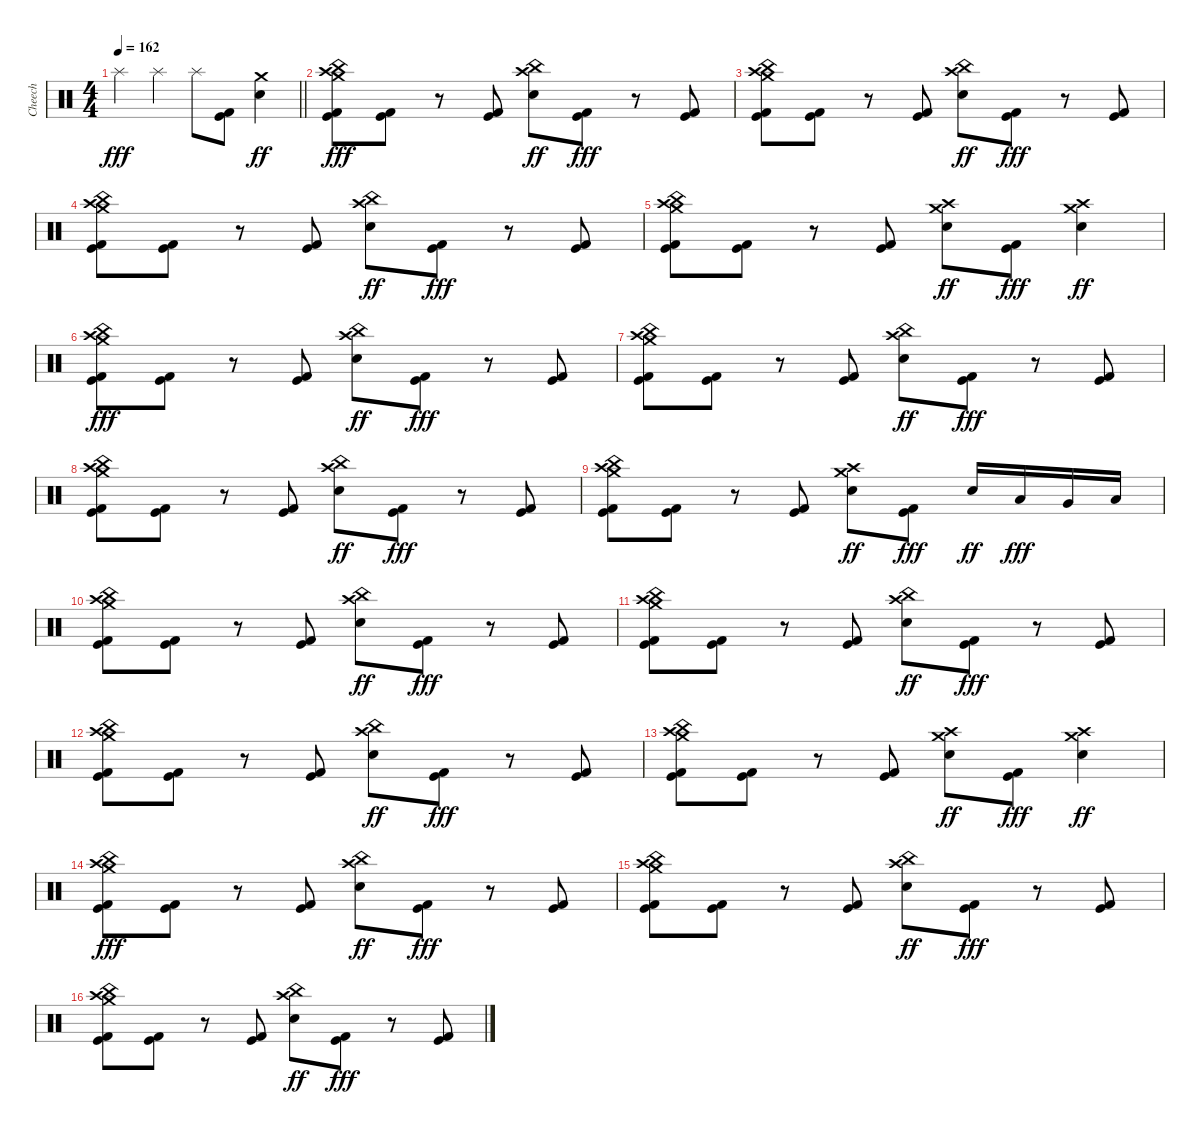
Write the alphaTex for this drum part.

\track ("Cheech" "Cheech") {instrument percussion}
\staff {score}
\articulation defaults
\ts (4 4)
\tempo 162
\clef neutral
\barLineRight lightlight
\ks c "Splash (hit)".4{dy fff} "Splash (hit)".4 "Splash (hit)".8
("Kick (hit) 2" "Kick (hit)").8 ("Crash medium (hit)" "Electric Snare (hit)").4{dy ff} |
("China (hit)" "Crash high (hit)" "Crash medium (hit)" "Kick (hit) 2" "Kick (hit)").8{dy fff} ("Kick (hit) 2" "Kick (hit)").8 r.8 ("Kick (hit) 2" "Kick (hit)").8 ("China (hit)" "Crash high (hit)" "Electric Snare (hit)").8{dy ff} ("Kick (hit) 2" "Kick (hit)").8{dy fff} r.8 ("Kick (hit) 2" "Kick (hit)").8 |
("China (hit)" "Crash high (hit)" "Crash medium (hit)" "Kick (hit) 2" "Kick (hit)").8 ("Kick (hit) 2" "Kick (hit)").8 r.8 ("Kick (hit) 2" "Kick (hit)").8 ("China (hit)" "Crash high (hit)" "Electric Snare (hit)").8{dy ff} ("Kick (hit) 2" "Kick (hit)").8{dy fff} r.8 ("Kick (hit) 2" "Kick (hit)").8 |
("China (hit)" "Crash high (hit)" "Crash medium (hit)" "Kick (hit) 2" "Kick (hit)").8 ("Kick (hit) 2" "Kick (hit)").8 r.8 ("Kick (hit) 2" "Kick (hit)").8 ("China (hit)" "Crash high (hit)" "Electric Snare (hit)").8{dy ff} ("Kick (hit) 2" "Kick (hit)").8{dy fff} r.8 ("Kick (hit) 2" "Kick (hit)").8 |
("China (hit)" "Crash high (hit)" "Crash medium (hit)" "Kick (hit) 2" "Kick (hit)").8 ("Kick (hit) 2" "Kick (hit)").8 r.8 ("Kick (hit) 2" "Kick (hit)").8 ("Crash medium (hit)" "Crash high (hit)" "Electric Snare (hit)").8{dy ff} ("Kick (hit) 2" "Kick (hit)").8{dy fff} ("Crash medium (hit)" "Crash high (hit)" "Electric Snare (hit)").4{dy ff} |
("China (hit)" "Crash high (hit)" "Crash medium (hit)" "Kick (hit) 2" "Kick (hit)").8{dy fff} ("Kick (hit) 2" "Kick (hit)").8 r.8 ("Kick (hit) 2" "Kick (hit)").8 ("China (hit)" "Crash high (hit)" "Electric Snare (hit)").8{dy ff} ("Kick (hit) 2" "Kick (hit)").8{dy fff} r.8 ("Kick (hit) 2" "Kick (hit)").8 |
("China (hit)" "Crash high (hit)" "Crash medium (hit)" "Kick (hit) 2" "Kick (hit)").8 ("Kick (hit) 2" "Kick (hit)").8 r.8 ("Kick (hit) 2" "Kick (hit)").8 ("China (hit)" "Crash high (hit)" "Electric Snare (hit)").8{dy ff} ("Kick (hit) 2" "Kick (hit)").8{dy fff} r.8 ("Kick (hit) 2" "Kick (hit)").8 |
("China (hit)" "Crash high (hit)" "Crash medium (hit)" "Kick (hit) 2" "Kick (hit)").8 ("Kick (hit) 2" "Kick (hit)").8 r.8 ("Kick (hit) 2" "Kick (hit)").8 ("China (hit)" "Crash high (hit)" "Electric Snare (hit)").8{dy ff} ("Kick (hit) 2" "Kick (hit)").8{dy fff} r.8 ("Kick (hit) 2" "Kick (hit)").8 |
("China (hit)" "Crash high (hit)" "Crash medium (hit)" "Kick (hit) 2" "Kick (hit)").8 ("Kick (hit) 2" "Kick (hit)").8 r.8 ("Kick (hit) 2" "Kick (hit)").8 ("Crash medium (hit)" "Crash high (hit)" "Electric Snare (hit)").8{dy ff} ("Kick (hit) 2" "Kick (hit)").8{dy fff} "Electric Snare (hit)".16{dy ff} "Low Tom (hit)".16{dy fff} "Very Low Tom (hit)".16 "Low Floor Tom (hit)".16 |
("China (hit)" "Crash high (hit)" "Crash medium (hit)" "Kick (hit) 2" "Kick (hit)").8 ("Kick (hit) 2" "Kick (hit)").8 r.8 ("Kick (hit) 2" "Kick (hit)").8 ("China (hit)" "Crash high (hit)" "Electric Snare (hit)").8{dy ff} ("Kick (hit) 2" "Kick (hit)").8{dy fff} r.8 ("Kick (hit) 2" "Kick (hit)").8 |
("China (hit)" "Crash high (hit)" "Crash medium (hit)" "Kick (hit) 2" "Kick (hit)").8 ("Kick (hit) 2" "Kick (hit)").8 r.8 ("Kick (hit) 2" "Kick (hit)").8 ("China (hit)" "Crash high (hit)" "Electric Snare (hit)").8{dy ff} ("Kick (hit) 2" "Kick (hit)").8{dy fff} r.8 ("Kick (hit) 2" "Kick (hit)").8 |
("China (hit)" "Crash high (hit)" "Crash medium (hit)" "Kick (hit) 2" "Kick (hit)").8 ("Kick (hit) 2" "Kick (hit)").8 r.8 ("Kick (hit) 2" "Kick (hit)").8 ("China (hit)" "Crash high (hit)" "Electric Snare (hit)").8{dy ff} ("Kick (hit) 2" "Kick (hit)").8{dy fff} r.8 ("Kick (hit) 2" "Kick (hit)").8 |
("China (hit)" "Crash high (hit)" "Crash medium (hit)" "Kick (hit) 2" "Kick (hit)").8 ("Kick (hit) 2" "Kick (hit)").8 r.8 ("Kick (hit) 2" "Kick (hit)").8 ("Crash medium (hit)" "Crash high (hit)" "Electric Snare (hit)").8{dy ff} ("Kick (hit) 2" "Kick (hit)").8{dy fff} ("Crash medium (hit)" "Crash high (hit)" "Electric Snare (hit)").4{dy ff} |
("China (hit)" "Crash high (hit)" "Crash medium (hit)" "Kick (hit) 2" "Kick (hit)").8{dy fff} ("Kick (hit) 2" "Kick (hit)").8 r.8 ("Kick (hit) 2" "Kick (hit)").8 ("China (hit)" "Crash high (hit)" "Electric Snare (hit)").8{dy ff} ("Kick (hit) 2" "Kick (hit)").8{dy fff} r.8 ("Kick (hit) 2" "Kick (hit)").8 |
("China (hit)" "Crash high (hit)" "Crash medium (hit)" "Kick (hit) 2" "Kick (hit)").8 ("Kick (hit) 2" "Kick (hit)").8 r.8 ("Kick (hit) 2" "Kick (hit)").8 ("China (hit)" "Crash high (hit)" "Electric Snare (hit)").8{dy ff} ("Kick (hit) 2" "Kick (hit)").8{dy fff} r.8 ("Kick (hit) 2" "Kick (hit)").8 |
("China (hit)" "Crash high (hit)" "Crash medium (hit)" "Kick (hit) 2" "Kick (hit)").8 ("Kick (hit) 2" "Kick (hit)").8 r.8 ("Kick (hit) 2" "Kick (hit)").8 ("China (hit)" "Crash high (hit)" "Electric Snare (hit)").8{dy ff} ("Kick (hit) 2" "Kick (hit)").8{dy fff} r.8 ("Kick (hit) 2" "Kick (hit)").8
